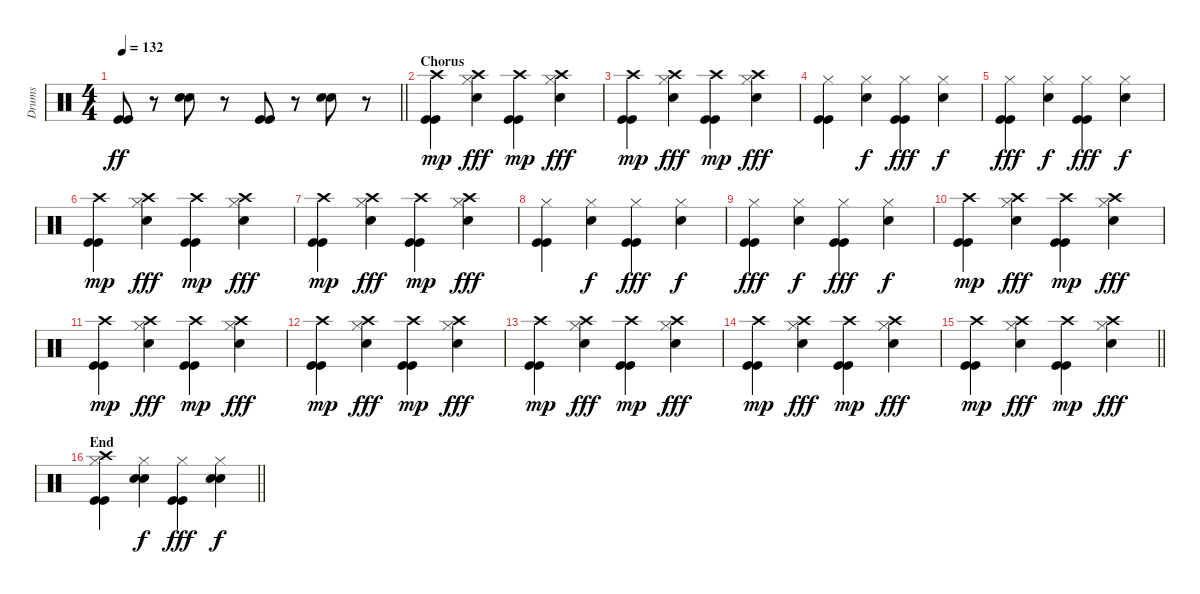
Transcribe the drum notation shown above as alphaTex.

\track ("Drums" "Drums") {instrument percussion}
\staff {score}
\articulation defaults
\ts (4 4)
\tempo 132
\clef neutral
\barLineRight lightlight
\ks c
("Kick (hit)" "Kick (hit)").8{dy ff} r.8 ("Hand Clap (hit)" "Hand Clap (hit)").8{bd 240} r.8 ("Kick (hit)" "Kick (hit)").8 r.8 ("Hand Clap (hit)" "Hand Clap (hit)").8{bd 240} r.8 |
\section ("" "Chorus")
("Kick (hit)" "Kick (hit)" "Crash high (hit)").4{dy mp} ("Hi-Hat (closed)" "Crash high (hit)" "Snare (hit) 2").4{dy fff} ("Kick (hit)" "Kick (hit)" "Crash high (hit)").4{dy mp} ("Hi-Hat (closed)" "Crash high (hit)" "Snare (hit) 2").4{dy fff} |
("Kick (hit)" "Kick (hit)" "Crash high (hit)").4{dy mp} ("Hi-Hat (closed)" "Crash high (hit)" "Snare (hit) 2").4{dy fff} ("Kick (hit)" "Kick (hit)" "Crash high (hit)").4{dy mp} ("Hi-Hat (closed)" "Crash high (hit)" "Snare (hit) 2").4{dy fff} |
("Hi-Hat (closed)" "Kick (hit)" "Kick (hit)").4 ("Hi-Hat (closed)" "Snare (hit) 2").4{dy f} ("Hi-Hat (closed)" "Kick (hit)" "Kick (hit)").4{dy fff} ("Hi-Hat (closed)" "Snare (hit) 2").4{dy f} |
("Hi-Hat (closed)" "Kick (hit)" "Kick (hit)").4{dy fff} ("Hi-Hat (closed)" "Snare (hit) 2").4{dy f} ("Hi-Hat (closed)" "Kick (hit)" "Kick (hit)").4{dy fff} ("Hi-Hat (closed)" "Snare (hit) 2").4{dy f} |
("Kick (hit)" "Kick (hit)" "Crash high (hit)").4{dy mp} ("Hi-Hat (closed)" "Crash high (hit)" "Snare (hit) 2").4{dy fff} ("Kick (hit)" "Kick (hit)" "Crash high (hit)").4{dy mp} ("Hi-Hat (closed)" "Crash high (hit)" "Snare (hit) 2").4{dy fff} |
("Kick (hit)" "Kick (hit)" "Crash high (hit)").4{dy mp} ("Hi-Hat (closed)" "Crash high (hit)" "Snare (hit) 2").4{dy fff} ("Kick (hit)" "Kick (hit)" "Crash high (hit)").4{dy mp} ("Hi-Hat (closed)" "Crash high (hit)" "Snare (hit) 2").4{dy fff} |
("Hi-Hat (closed)" "Kick (hit)" "Kick (hit)").4 ("Hi-Hat (closed)" "Snare (hit) 2").4{dy f} ("Hi-Hat (closed)" "Kick (hit)" "Kick (hit)").4{dy fff} ("Hi-Hat (closed)" "Snare (hit) 2").4{dy f} |
("Hi-Hat (closed)" "Kick (hit)" "Kick (hit)").4{dy fff} ("Hi-Hat (closed)" "Snare (hit) 2").4{dy f} ("Hi-Hat (closed)" "Kick (hit)" "Kick (hit)").4{dy fff} ("Hi-Hat (closed)" "Snare (hit) 2").4{dy f} |
("Kick (hit)" "Kick (hit)" "Crash high (hit)").4{dy mp} ("Hi-Hat (closed)" "Crash high (hit)" "Snare (hit) 2").4{dy fff} ("Kick (hit)" "Kick (hit)" "Crash high (hit)").4{dy mp} ("Hi-Hat (closed)" "Crash high (hit)" "Snare (hit) 2").4{dy fff} |
("Kick (hit)" "Kick (hit)" "Crash high (hit)").4{dy mp} ("Hi-Hat (closed)" "Crash high (hit)" "Snare (hit) 2").4{dy fff} ("Kick (hit)" "Kick (hit)" "Crash high (hit)").4{dy mp} ("Hi-Hat (closed)" "Crash high (hit)" "Snare (hit) 2").4{dy fff} |
("Kick (hit)" "Kick (hit)" "Crash high (hit)").4{dy mp} ("Hi-Hat (closed)" "Crash high (hit)" "Snare (hit) 2").4{dy fff} ("Kick (hit)" "Kick (hit)" "Crash high (hit)").4{dy mp} ("Hi-Hat (closed)" "Crash high (hit)" "Snare (hit) 2").4{dy fff} |
("Kick (hit)" "Kick (hit)" "Crash high (hit)").4{dy mp} ("Hi-Hat (closed)" "Crash high (hit)" "Snare (hit) 2").4{dy fff} ("Kick (hit)" "Kick (hit)" "Crash high (hit)").4{dy mp} ("Hi-Hat (closed)" "Crash high (hit)" "Snare (hit) 2").4{dy fff} |
("Kick (hit)" "Kick (hit)" "Crash high (hit)").4{dy mp} ("Hi-Hat (closed)" "Crash high (hit)" "Snare (hit) 2").4{dy fff} ("Kick (hit)" "Kick (hit)" "Crash high (hit)").4{dy mp} ("Hi-Hat (closed)" "Crash high (hit)" "Snare (hit) 2").4{dy fff} |
\barLineRight lightlight
("Kick (hit)" "Kick (hit)" "Crash high (hit)").4{dy mp} ("Hi-Hat (closed)" "Crash high (hit)" "Snare (hit) 2").4{dy fff} ("Kick (hit)" "Kick (hit)" "Crash high (hit)").4{dy mp} ("Hi-Hat (closed)" "Crash high (hit)" "Snare (hit) 2").4{dy fff} |
\section ("" "End")
\barLineRight lightlight
("Hi-Hat (closed)" "Kick (hit)" "Kick (hit)" "Crash high (hit)").4 ("Hi-Hat (closed)" "Hand Clap (hit)" "Hand Clap (hit)").4{dy f} ("Hi-Hat (closed)" "Kick (hit)" "Kick (hit)").4{dy fff} ("Hi-Hat (closed)" "Hand Clap (hit)" "Hand Clap (hit)").4{dy f}
